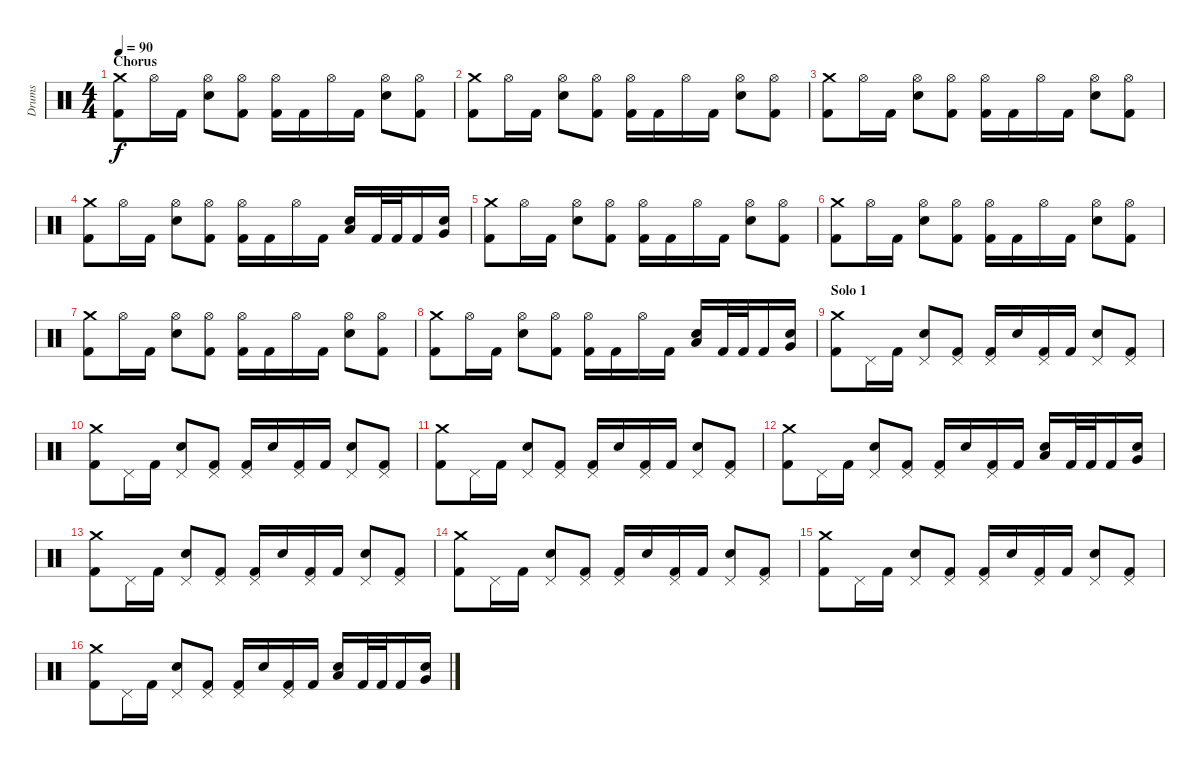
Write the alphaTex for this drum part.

\track ("Drums" "Drums") {instrument percussion}
\staff {score}
\articulation defaults
\ts (4 4)
\section ("" "Chorus")
\tempo 90
\clef neutral
\ks c
("Crash medium (hit)" "Kick (hit) 2").8{dy f} "Hi-Hat (open)".16 "Kick (hit) 2".16 ("Hi-Hat (open)" "Electric Snare (hit)").8 ("Hi-Hat (open)" "Kick (hit) 2").8 ("Hi-Hat (open)" "Kick (hit) 2").16 "Kick (hit) 2".16 "Hi-Hat (open)".16 "Kick (hit) 2".16 ("Hi-Hat (open)" "Electric Snare (hit)").8 ("Hi-Hat (open)" "Kick (hit) 2").8 |
("Crash medium (hit)" "Kick (hit) 2").8 "Hi-Hat (open)".16 "Kick (hit) 2".16 ("Hi-Hat (open)" "Electric Snare (hit)").8 ("Hi-Hat (open)" "Kick (hit) 2").8 ("Hi-Hat (open)" "Kick (hit) 2").16 "Kick (hit) 2".16 "Hi-Hat (open)".16 "Kick (hit) 2".16 ("Hi-Hat (open)" "Electric Snare (hit)").8 ("Hi-Hat (open)" "Kick (hit) 2").8 |
("Crash medium (hit)" "Kick (hit) 2").8 "Hi-Hat (open)".16 "Kick (hit) 2".16 ("Hi-Hat (open)" "Electric Snare (hit)").8 ("Hi-Hat (open)" "Kick (hit) 2").8 ("Hi-Hat (open)" "Kick (hit) 2").16 "Kick (hit) 2".16 "Hi-Hat (open)".16 "Kick (hit) 2".16 ("Hi-Hat (open)" "Electric Snare (hit)").8 ("Hi-Hat (open)" "Kick (hit) 2").8 |
("Crash medium (hit)" "Kick (hit) 2").8 "Hi-Hat (open)".16 "Kick (hit) 2".16 ("Hi-Hat (open)" "Electric Snare (hit)").8 ("Hi-Hat (open)" "Kick (hit) 2").8 ("Hi-Hat (open)" "Kick (hit) 2").16 "Kick (hit) 2".16 "Hi-Hat (open)".16 "Kick (hit) 2".16 ("Electric Snare (hit)" "Low Tom (hit)").16 "Kick (hit) 2".32 "Kick (hit) 2".32 "Kick (hit) 2".16 ("Electric Snare (hit)" "Very Low Tom (hit)").16 |
("Crash medium (hit)" "Kick (hit) 2").8 "Hi-Hat (open)".16 "Kick (hit) 2".16 ("Hi-Hat (open)" "Electric Snare (hit)").8 ("Hi-Hat (open)" "Kick (hit) 2").8 ("Hi-Hat (open)" "Kick (hit) 2").16 "Kick (hit) 2".16 "Hi-Hat (open)".16 "Kick (hit) 2".16 ("Hi-Hat (open)" "Electric Snare (hit)").8 ("Hi-Hat (open)" "Kick (hit) 2").8 |
("Crash medium (hit)" "Kick (hit) 2").8 "Hi-Hat (open)".16 "Kick (hit) 2".16 ("Hi-Hat (open)" "Electric Snare (hit)").8 ("Hi-Hat (open)" "Kick (hit) 2").8 ("Hi-Hat (open)" "Kick (hit) 2").16 "Kick (hit) 2".16 "Hi-Hat (open)".16 "Kick (hit) 2".16 ("Hi-Hat (open)" "Electric Snare (hit)").8 ("Hi-Hat (open)" "Kick (hit) 2").8 |
("Crash medium (hit)" "Kick (hit) 2").8 "Hi-Hat (open)".16 "Kick (hit) 2".16 ("Hi-Hat (open)" "Electric Snare (hit)").8 ("Hi-Hat (open)" "Kick (hit) 2").8 ("Hi-Hat (open)" "Kick (hit) 2").16 "Kick (hit) 2".16 "Hi-Hat (open)".16 "Kick (hit) 2".16 ("Hi-Hat (open)" "Electric Snare (hit)").8 ("Hi-Hat (open)" "Kick (hit) 2").8 |
("Crash medium (hit)" "Kick (hit) 2").8 "Hi-Hat (open)".16 "Kick (hit) 2".16 ("Hi-Hat (open)" "Electric Snare (hit)").8 ("Hi-Hat (open)" "Kick (hit) 2").8 ("Hi-Hat (open)" "Kick (hit) 2").16 "Kick (hit) 2".16 "Hi-Hat (open)".16 "Kick (hit) 2".16 ("Electric Snare (hit)" "Low Tom (hit)").16 "Kick (hit) 2".32 "Kick (hit) 2".32 "Kick (hit) 2".16 ("Electric Snare (hit)" "Very Low Tom (hit)").16 |
\section ("" "Solo 1")
("Crash medium (hit)" "Kick (hit) 2").8 "Pedal Hi-Hat (hit)".16 "Kick (hit) 2".16 ("Pedal Hi-Hat (hit)" "Electric Snare (hit)").8 ("Pedal Hi-Hat (hit)" "Kick (hit) 2").8 ("Pedal Hi-Hat (hit)" "Kick (hit) 2").16 "Electric Snare (hit)".16 ("Pedal Hi-Hat (hit)" "Kick (hit) 2").16 "Kick (hit) 2".16 ("Pedal Hi-Hat (hit)" "Electric Snare (hit)").8 ("Pedal Hi-Hat (hit)" "Kick (hit) 2").8 |
("Crash medium (hit)" "Kick (hit) 2").8 "Pedal Hi-Hat (hit)".16 "Kick (hit) 2".16 ("Pedal Hi-Hat (hit)" "Electric Snare (hit)").8 ("Pedal Hi-Hat (hit)" "Kick (hit) 2").8 ("Pedal Hi-Hat (hit)" "Kick (hit) 2").16 "Electric Snare (hit)".16 ("Pedal Hi-Hat (hit)" "Kick (hit) 2").16 "Kick (hit) 2".16 ("Pedal Hi-Hat (hit)" "Electric Snare (hit)").8 ("Pedal Hi-Hat (hit)" "Kick (hit) 2").8 |
("Crash medium (hit)" "Kick (hit) 2").8 "Pedal Hi-Hat (hit)".16 "Kick (hit) 2".16 ("Pedal Hi-Hat (hit)" "Electric Snare (hit)").8 ("Pedal Hi-Hat (hit)" "Kick (hit) 2").8 ("Pedal Hi-Hat (hit)" "Kick (hit) 2").16 "Electric Snare (hit)".16 ("Pedal Hi-Hat (hit)" "Kick (hit) 2").16 "Kick (hit) 2".16 ("Pedal Hi-Hat (hit)" "Electric Snare (hit)").8 ("Pedal Hi-Hat (hit)" "Kick (hit) 2").8 |
("Crash medium (hit)" "Kick (hit) 2").8 "Pedal Hi-Hat (hit)".16 "Kick (hit) 2".16 ("Pedal Hi-Hat (hit)" "Electric Snare (hit)").8 ("Pedal Hi-Hat (hit)" "Kick (hit) 2").8 ("Pedal Hi-Hat (hit)" "Kick (hit) 2").16 "Electric Snare (hit)".16 ("Pedal Hi-Hat (hit)" "Kick (hit) 2").16 "Kick (hit) 2".16 ("Electric Snare (hit)" "Low Tom (hit)").16 "Kick (hit) 2".32 "Kick (hit) 2".32 "Kick (hit) 2".16 ("Electric Snare (hit)" "Very Low Tom (hit)").16 |
("Crash medium (hit)" "Kick (hit) 2").8 "Pedal Hi-Hat (hit)".16 "Kick (hit) 2".16 ("Pedal Hi-Hat (hit)" "Electric Snare (hit)").8 ("Pedal Hi-Hat (hit)" "Kick (hit) 2").8 ("Pedal Hi-Hat (hit)" "Kick (hit) 2").16 "Electric Snare (hit)".16 ("Pedal Hi-Hat (hit)" "Kick (hit) 2").16 "Kick (hit) 2".16 ("Pedal Hi-Hat (hit)" "Electric Snare (hit)").8 ("Pedal Hi-Hat (hit)" "Kick (hit) 2").8 |
("Crash medium (hit)" "Kick (hit) 2").8 "Pedal Hi-Hat (hit)".16 "Kick (hit) 2".16 ("Pedal Hi-Hat (hit)" "Electric Snare (hit)").8 ("Pedal Hi-Hat (hit)" "Kick (hit) 2").8 ("Pedal Hi-Hat (hit)" "Kick (hit) 2").16 "Electric Snare (hit)".16 ("Pedal Hi-Hat (hit)" "Kick (hit) 2").16 "Kick (hit) 2".16 ("Pedal Hi-Hat (hit)" "Electric Snare (hit)").8 ("Pedal Hi-Hat (hit)" "Kick (hit) 2").8 |
("Crash medium (hit)" "Kick (hit) 2").8 "Pedal Hi-Hat (hit)".16 "Kick (hit) 2".16 ("Pedal Hi-Hat (hit)" "Electric Snare (hit)").8 ("Pedal Hi-Hat (hit)" "Kick (hit) 2").8 ("Pedal Hi-Hat (hit)" "Kick (hit) 2").16 "Electric Snare (hit)".16 ("Pedal Hi-Hat (hit)" "Kick (hit) 2").16 "Kick (hit) 2".16 ("Pedal Hi-Hat (hit)" "Electric Snare (hit)").8 ("Pedal Hi-Hat (hit)" "Kick (hit) 2").8 |
("Crash medium (hit)" "Kick (hit) 2").8 "Pedal Hi-Hat (hit)".16 "Kick (hit) 2".16 ("Pedal Hi-Hat (hit)" "Electric Snare (hit)").8 ("Pedal Hi-Hat (hit)" "Kick (hit) 2").8 ("Pedal Hi-Hat (hit)" "Kick (hit) 2").16 "Electric Snare (hit)".16 ("Pedal Hi-Hat (hit)" "Kick (hit) 2").16 "Kick (hit) 2".16 ("Electric Snare (hit)" "Low Tom (hit)").16 "Kick (hit) 2".32 "Kick (hit) 2".32 "Kick (hit) 2".16 ("Electric Snare (hit)" "Very Low Tom (hit)").16
